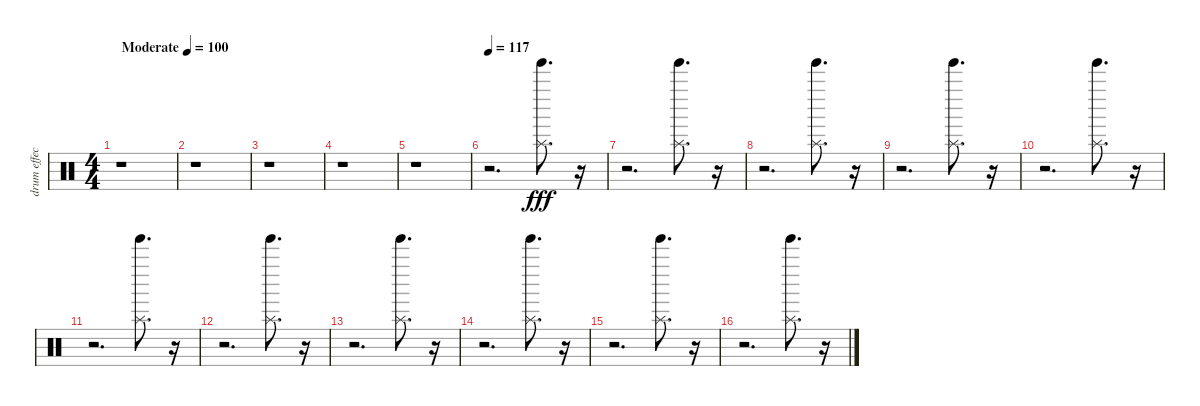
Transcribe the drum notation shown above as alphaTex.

\track ("drum effect" "drum effec") {instrument percussion}
\staff {score}
\articulation defaults
\ts (4 4)
\tempo (100 "Moderate")
\clef neutral
\ks c
r.1{dy fff} |
r.1 |
r.1 |
r.1 |
r.1 |
\tempo 117
r.2{d} ("Splash (hit)" "Tinkle Bell (hit)").8{d} r.16 |
r.2{d} ("Splash (hit)" "Tinkle Bell (hit)").8{d} r.16 |
r.2{d} ("Splash (hit)" "Tinkle Bell (hit)").8{d} r.16 |
r.2{d} ("Splash (hit)" "Tinkle Bell (hit)").8{d} r.16 |
r.2{d} ("Splash (hit)" "Tinkle Bell (hit)").8{d} r.16 |
r.2{d} ("Splash (hit)" "Tinkle Bell (hit)").8{d} r.16 |
r.2{d} ("Splash (hit)" "Tinkle Bell (hit)").8{d} r.16 |
r.2{d} ("Splash (hit)" "Tinkle Bell (hit)").8{d} r.16 |
r.2{d} ("Splash (hit)" "Tinkle Bell (hit)").8{d} r.16 |
r.2{d} ("Splash (hit)" "Tinkle Bell (hit)").8{d} r.16 |
r.2{d} ("Splash (hit)" "Tinkle Bell (hit)").8{d} r.16
